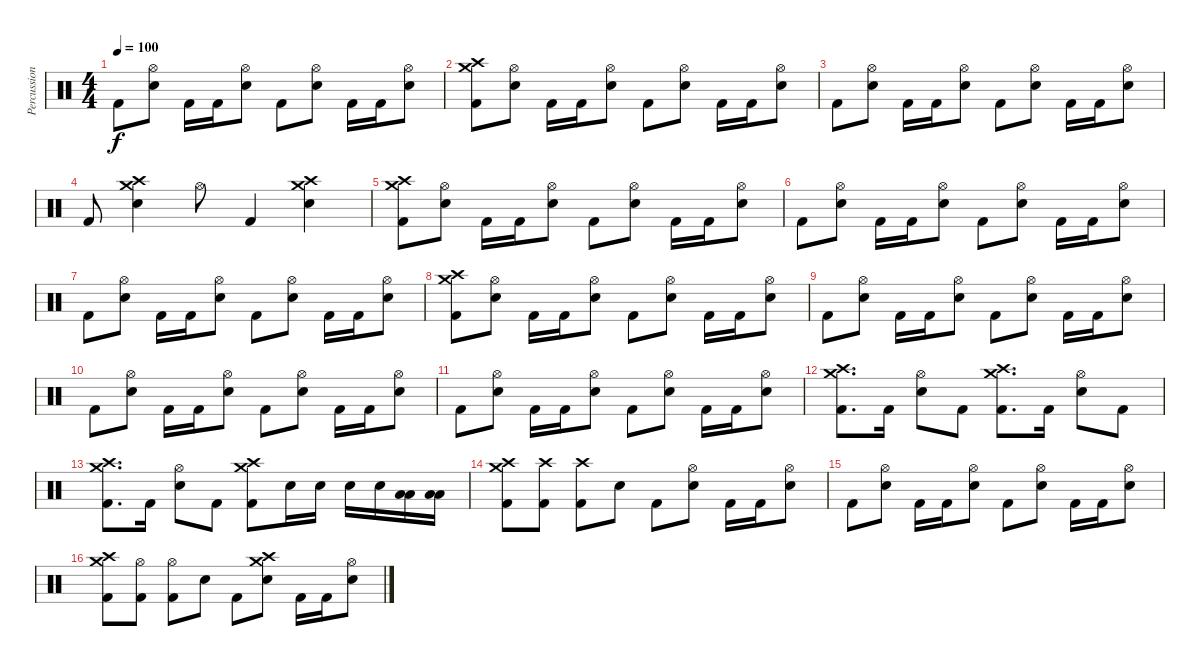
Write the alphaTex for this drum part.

\track ("Percussion" "Percussion") {instrument percussion}
\staff {score}
\articulation defaults
\ts (4 4)
\tempo 100
\clef neutral
\ks c "Kick (hit) 2".8{dy f}
("Hi-Hat (open)" "Electric Snare (hit)").8 "Kick (hit) 2".16 "Kick (hit) 2".16 ("Hi-Hat (open)" "Electric Snare (hit)").8 "Kick (hit) 2".8 ("Hi-Hat (open)" "Electric Snare (hit)").8 "Kick (hit) 2".16 "Kick (hit) 2".16 ("Hi-Hat (open)" "Electric Snare (hit)").8 |
("Crash high (hit)" "Crash medium (hit)" "Kick (hit) 2").8 ("Hi-Hat (open)" "Electric Snare (hit)").8 "Kick (hit) 2".16 "Kick (hit) 2".16 ("Hi-Hat (open)" "Electric Snare (hit)").8 "Kick (hit) 2".8 ("Hi-Hat (open)" "Electric Snare (hit)").8 "Kick (hit) 2".16 "Kick (hit) 2".16 ("Hi-Hat (open)" "Electric Snare (hit)").8 |
"Kick (hit) 2".8 ("Hi-Hat (open)" "Electric Snare (hit)").8 "Kick (hit) 2".16 "Kick (hit) 2".16 ("Hi-Hat (open)" "Electric Snare (hit)").8 "Kick (hit) 2".8 ("Hi-Hat (open)" "Electric Snare (hit)").8 "Kick (hit) 2".16 "Kick (hit) 2".16 ("Hi-Hat (open)" "Electric Snare (hit)").8 |
"Kick (hit) 2".8 ("Crash medium (hit)" "Crash high (hit)" "Electric Snare (hit)").4 "Hi-Hat (open)".8 "Kick (hit) 2".4 ("Crash high (hit)" "Crash medium (hit)" "Electric Snare (hit)").4 |
("Crash high (hit)" "Crash medium (hit)" "Kick (hit) 2").8 ("Hi-Hat (open)" "Electric Snare (hit)").8 "Kick (hit) 2".16 "Kick (hit) 2".16 ("Hi-Hat (open)" "Electric Snare (hit)").8 "Kick (hit) 2".8 ("Hi-Hat (open)" "Electric Snare (hit)").8 "Kick (hit) 2".16 "Kick (hit) 2".16 ("Hi-Hat (open)" "Electric Snare (hit)").8 |
"Kick (hit) 2".8 ("Hi-Hat (open)" "Electric Snare (hit)").8 "Kick (hit) 2".16 "Kick (hit) 2".16 ("Hi-Hat (open)" "Electric Snare (hit)").8 "Kick (hit) 2".8 ("Hi-Hat (open)" "Electric Snare (hit)").8 "Kick (hit) 2".16 "Kick (hit) 2".16 ("Hi-Hat (open)" "Electric Snare (hit)").8 |
"Kick (hit) 2".8 ("Hi-Hat (open)" "Electric Snare (hit)").8 "Kick (hit) 2".16 "Kick (hit) 2".16 ("Hi-Hat (open)" "Electric Snare (hit)").8 "Kick (hit) 2".8 ("Hi-Hat (open)" "Electric Snare (hit)").8 "Kick (hit) 2".16 "Kick (hit) 2".16 ("Hi-Hat (open)" "Electric Snare (hit)").8 |
("Crash high (hit)" "Crash medium (hit)" "Kick (hit) 2").8 ("Hi-Hat (open)" "Electric Snare (hit)").8 "Kick (hit) 2".16 "Kick (hit) 2".16 ("Hi-Hat (open)" "Electric Snare (hit)").8 "Kick (hit) 2".8 ("Hi-Hat (open)" "Electric Snare (hit)").8 "Kick (hit) 2".16 "Kick (hit) 2".16 ("Hi-Hat (open)" "Electric Snare (hit)").8 |
"Kick (hit) 2".8 ("Hi-Hat (open)" "Electric Snare (hit)").8 "Kick (hit) 2".16 "Kick (hit) 2".16 ("Hi-Hat (open)" "Electric Snare (hit)").8 "Kick (hit) 2".8 ("Hi-Hat (open)" "Electric Snare (hit)").8 "Kick (hit) 2".16 "Kick (hit) 2".16 ("Hi-Hat (open)" "Electric Snare (hit)").8 |
"Kick (hit) 2".8 ("Hi-Hat (open)" "Electric Snare (hit)").8 "Kick (hit) 2".16 "Kick (hit) 2".16 ("Hi-Hat (open)" "Electric Snare (hit)").8 "Kick (hit) 2".8 ("Hi-Hat (open)" "Electric Snare (hit)").8 "Kick (hit) 2".16 "Kick (hit) 2".16 ("Hi-Hat (open)" "Electric Snare (hit)").8 |
"Kick (hit) 2".8 ("Hi-Hat (open)" "Electric Snare (hit)").8 "Kick (hit) 2".16 "Kick (hit) 2".16 ("Hi-Hat (open)" "Electric Snare (hit)").8 "Kick (hit) 2".8 ("Hi-Hat (open)" "Electric Snare (hit)").8 "Kick (hit) 2".16 "Kick (hit) 2".16 ("Hi-Hat (open)" "Electric Snare (hit)").8 |
("Crash high (hit)" "Crash medium (hit)" "Kick (hit) 2").8{d} "Kick (hit) 2".16 ("Hi-Hat (open)" "Electric Snare (hit)").8 "Kick (hit) 2".8 ("Crash high (hit)" "Crash medium (hit)" "Kick (hit) 2").8{d} "Kick (hit) 2".16 ("Hi-Hat (open)" "Electric Snare (hit)").8 "Kick (hit) 2".8 |
("Crash high (hit)" "Crash medium (hit)" "Kick (hit) 2").8{d} "Kick (hit) 2".16 ("Hi-Hat (open)" "Electric Snare (hit)").8 "Kick (hit) 2".8 ("Crash high (hit)" "Crash medium (hit)" "Kick (hit) 2").8 "Electric Snare (hit)".16 "Electric Snare (hit)".16 "Electric Snare (hit)".16 "Electric Snare (hit)".16 ("Low Tom (hit)" "Low Tom (hit)").16 ("Low Tom (hit)" "Low Tom (hit)").16 |
("Crash high (hit)" "Crash medium (hit)" "Kick (hit) 2").8 ("Crash high (hit)" "Kick (hit) 2").8 ("Crash high (hit)" "Kick (hit) 2").8 "Electric Snare (hit)".8 "Kick (hit) 2".8 ("Hi-Hat (open)" "Electric Snare (hit)").8 "Kick (hit) 2".16 "Kick (hit) 2".16 ("Hi-Hat (open)" "Electric Snare (hit)").8 |
"Kick (hit) 2".8 ("Hi-Hat (open)" "Electric Snare (hit)").8 "Kick (hit) 2".16 "Kick (hit) 2".16 ("Hi-Hat (open)" "Electric Snare (hit)").8 "Kick (hit) 2".8 ("Hi-Hat (open)" "Electric Snare (hit)").8 "Kick (hit) 2".16 "Kick (hit) 2".16 ("Hi-Hat (open)" "Electric Snare (hit)").8 |
("Crash high (hit)" "Crash medium (hit)" "Kick (hit) 2").8 ("Hi-Hat (open)" "Kick (hit) 2").8 ("Hi-Hat (open)" "Kick (hit) 2").8 "Electric Snare (hit)".8 "Kick (hit) 2".8 ("Crash high (hit)" "Crash medium (hit)" "Electric Snare (hit)").8 "Kick (hit) 2".16 "Kick (hit) 2".16 ("Hi-Hat (open)" "Electric Snare (hit)").8
